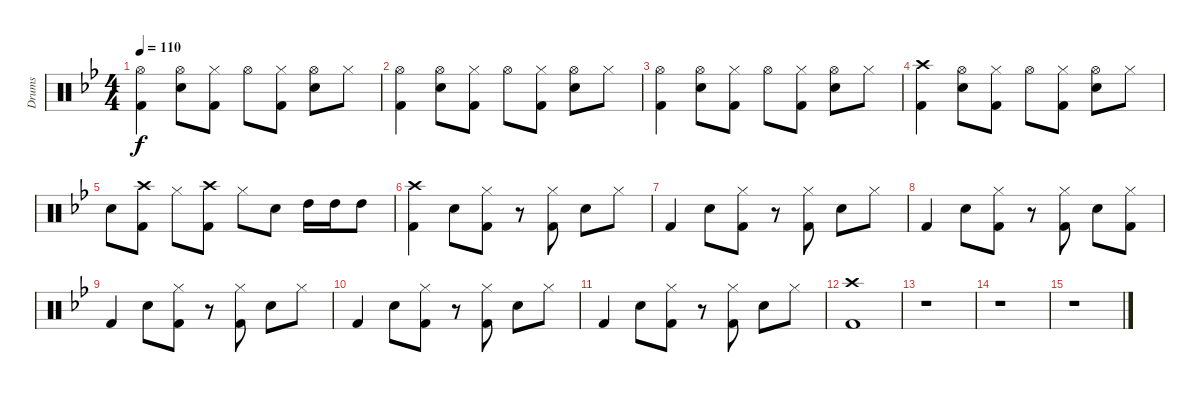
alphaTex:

\track ("Drums" "Drums") {instrument percussion}
\staff {score}
\articulation defaults
\ts (4 4)
\tempo 110
\clef neutral
\ks gminor
("Hi-Hat (open)" "Kick (hit) 2").4{dy f} ("Hi-Hat (open)" "Snare (hit) 2").8 ("Hi-Hat (closed)" "Kick (hit) 2").8 "Hi-Hat (open)".8 ("Hi-Hat (closed)" "Kick (hit) 2").8 ("Hi-Hat (open)" "Snare (hit) 2").8 "Hi-Hat (closed)".8 |
("Hi-Hat (open)" "Kick (hit) 2").4 ("Hi-Hat (open)" "Snare (hit) 2").8 ("Hi-Hat (closed)" "Kick (hit) 2").8 "Hi-Hat (open)".8 ("Hi-Hat (closed)" "Kick (hit) 2").8 ("Hi-Hat (open)" "Snare (hit) 2").8 "Hi-Hat (closed)".8 |
("Hi-Hat (open)" "Kick (hit) 2").4 ("Hi-Hat (open)" "Snare (hit) 2").8 ("Hi-Hat (closed)" "Kick (hit) 2").8 "Hi-Hat (open)".8 ("Hi-Hat (closed)" "Kick (hit) 2").8 ("Hi-Hat (open)" "Snare (hit) 2").8 "Hi-Hat (closed)".8 |
("Crash high (hit)" "Kick (hit) 2").4 ("Hi-Hat (open)" "Snare (hit) 2").8 ("Hi-Hat (closed)" "Kick (hit) 2").8 "Hi-Hat (open)".8 ("Hi-Hat (closed)" "Kick (hit) 2").8 ("Hi-Hat (open)" "Snare (hit) 2").8 "Hi-Hat (closed)".8 |
"Snare (hit) 2".8 ("Crash high (hit)" "Kick (hit) 2").8 "Hi-Hat (closed)".8 ("Crash high (hit)" "Kick (hit) 2").8 "Hi-Hat (closed)".8 "Snare (hit) 2".8 "High Tom (hit)".16 "High Tom (hit)".16 "High Tom (hit)".8 |
("Crash high (hit)" "Kick (hit) 2").4 "Snare (hit) 2".8 ("Hi-Hat (closed)" "Kick (hit) 2").8 r.8 ("Hi-Hat (closed)" "Kick (hit) 2").8 "Snare (hit) 2".8 "Hi-Hat (closed)".8 |
"Kick (hit) 2".4 "Snare (hit) 2".8 ("Hi-Hat (closed)" "Kick (hit) 2").8 r.8 ("Hi-Hat (closed)" "Kick (hit) 2").8 "Snare (hit) 2".8 "Hi-Hat (closed)".8 |
"Kick (hit) 2".4 "Snare (hit) 2".8 ("Hi-Hat (closed)" "Kick (hit) 2").8 r.8 ("Hi-Hat (closed)" "Kick (hit) 2").8 "Snare (hit) 2".8 ("Hi-Hat (closed)" "Kick (hit) 2").8 |
"Kick (hit) 2".4 "Snare (hit) 2".8 ("Hi-Hat (closed)" "Kick (hit) 2").8 r.8 ("Hi-Hat (closed)" "Kick (hit) 2").8 "Snare (hit) 2".8 "Hi-Hat (closed)".8 |
"Kick (hit) 2".4 "Snare (hit) 2".8 ("Hi-Hat (closed)" "Kick (hit) 2").8 r.8 ("Hi-Hat (closed)" "Kick (hit) 2").8 "Snare (hit) 2".8 "Hi-Hat (closed)".8 |
"Kick (hit) 2".4 "Snare (hit) 2".8 ("Hi-Hat (closed)" "Kick (hit) 2").8 r.8 ("Hi-Hat (closed)" "Kick (hit) 2").8 "Snare (hit) 2".8 "Hi-Hat (closed)".8 |
("Crash high (hit)" "Kick (hit) 2").1 |
r.1 |
r.1 |
r.1
